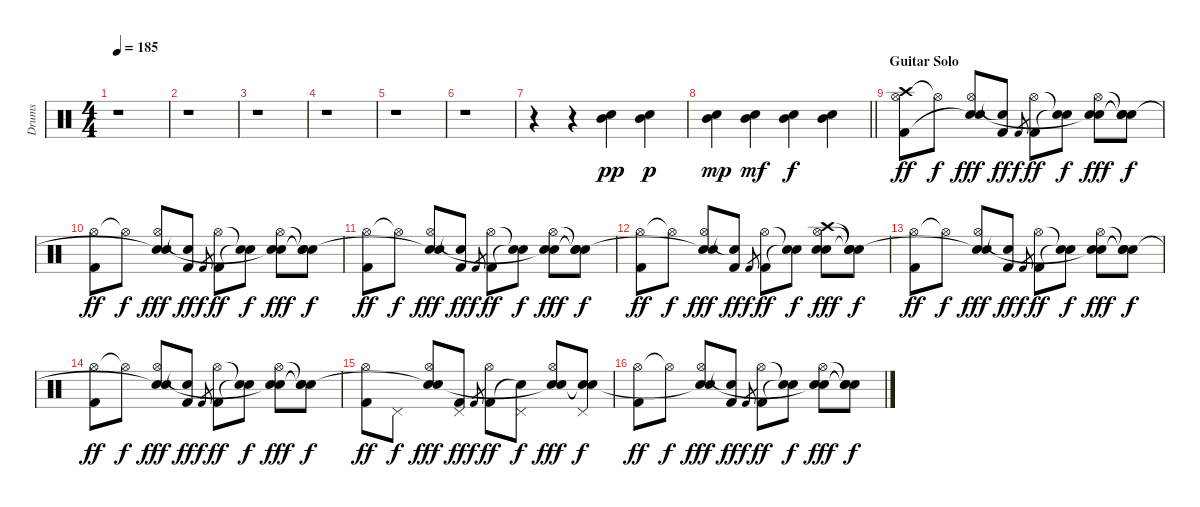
\track ("Drums" "Drums") {instrument percussion}
\staff {score}
\articulation defaults
\ts (4 4)
\tempo 185
\clef neutral
\ks c
r.1{dy ff} |
r.1 |
r.1 |
r.1 |
r.1 |
r.1 |
r.4 r.4 ("Electric Snare (hit)" "Mid Tom (hit)").4{dy pp} ("Electric Snare (hit)" "Mid Tom (hit)").4{dy p} |
\barLineRight lightlight
("Electric Snare (hit)" "Mid Tom (hit)").4{dy mp} ("Electric Snare (hit)" "Mid Tom (hit)").4{dy mf} ("Electric Snare (hit)" "Mid Tom (hit)").4{dy f} ("Electric Snare (hit)" "Mid Tom (hit)").4 |
\section ("" "Guitar Solo")
("Crash high (hit)" "Hi-Hat (open)" "Kick (hit) 2").8{dy ff} "Hi-Hat (open)"{t}.8{dy f} ("Hi-Hat (open)" "Electric Snare (hit)" "Snare (hit)"{t}).8{dy fff} ("Snare (hit)"{t} "Kick (hit) 2").8{dy ff} "Kick (hit) 2".8{gr dy f} ("Hi-Hat (open)" "Kick (hit) 2").8{dy ff} ("Snare (hit)"{t} "Snare (hit)"{t}).8{dy f} ("Hi-Hat (open)" "Electric Snare (hit)" "Snare (hit)"{t}).8{dy fff} ("Snare (hit)"{t} "Snare (hit)"{t} "Snare (hit)"{t}).8{dy f} |
("Hi-Hat (open)" "Kick (hit) 2").8{dy ff} "Hi-Hat (open)"{t}.8{dy f} ("Hi-Hat (open)" "Electric Snare (hit)" "Snare (hit)"{t}).8{dy fff} ("Snare (hit)"{t} "Kick (hit) 2").8{dy ff} "Kick (hit) 2".8{gr dy f} ("Hi-Hat (open)" "Kick (hit) 2").8{dy ff} ("Snare (hit)"{t} "Snare (hit)"{t}).8{dy f} ("Hi-Hat (open)" "Electric Snare (hit)" "Snare (hit)"{t}).8{dy fff} ("Snare (hit)"{t} "Snare (hit)"{t} "Snare (hit)"{t}).8{dy f} |
("Hi-Hat (open)" "Kick (hit) 2").8{dy ff} "Hi-Hat (open)"{t}.8{dy f} ("Hi-Hat (open)" "Electric Snare (hit)" "Snare (hit)"{t}).8{dy fff} ("Snare (hit)"{t} "Kick (hit) 2").8{dy ff} "Kick (hit) 2".8{gr dy f} ("Hi-Hat (open)" "Kick (hit) 2").8{dy ff} ("Snare (hit)"{t} "Snare (hit)"{t}).8{dy f} ("Hi-Hat (open)" "Electric Snare (hit)" "Snare (hit)"{t}).8{dy fff} ("Snare (hit)"{t} "Snare (hit)"{t} "Snare (hit)"{t}).8{dy f} |
("Hi-Hat (open)" "Kick (hit) 2").8{dy ff} "Hi-Hat (open)"{t}.8{dy f} ("Hi-Hat (open)" "Electric Snare (hit)" "Snare (hit)"{t}).8{dy fff} ("Snare (hit)"{t} "Kick (hit) 2").8{dy ff} "Kick (hit) 2".8{gr dy f} ("Hi-Hat (open)" "Kick (hit) 2").8{dy ff} ("Snare (hit)"{t} "Snare (hit)"{t}).8{dy f} ("Crash high (hit)" "Hi-Hat (open)" "Electric Snare (hit)" "Snare (hit)").8{dy fff} ("Snare (hit)"{t} "Snare (hit)"{t} "Snare (hit)"{t}).8{dy f} |
("Hi-Hat (open)" "Kick (hit) 2").8{dy ff} "Hi-Hat (open)"{t}.8{dy f} ("Hi-Hat (open)" "Electric Snare (hit)" "Snare (hit)"{t}).8{dy fff} ("Snare (hit)"{t} "Kick (hit) 2").8{dy ff} "Kick (hit) 2".8{gr dy f} ("Hi-Hat (open)" "Kick (hit) 2").8{dy ff} ("Snare (hit)"{t} "Snare (hit)"{t}).8{dy f} ("Hi-Hat (open)" "Electric Snare (hit)" "Snare (hit)"{t}).8{dy fff} ("Snare (hit)"{t} "Snare (hit)"{t} "Snare (hit)"{t}).8{dy f} |
("Hi-Hat (open)" "Kick (hit) 2").8{dy ff} "Hi-Hat (open)"{t}.8{dy f} ("Hi-Hat (open)" "Electric Snare (hit)" "Snare (hit)"{t}).8{dy fff} ("Snare (hit)"{t} "Kick (hit) 2").8{dy ff} "Kick (hit) 2".8{gr dy f} ("Hi-Hat (open)" "Kick (hit) 2").8{dy ff} ("Snare (hit)"{t} "Snare (hit)"{t}).8{dy f} ("Hi-Hat (open)" "Electric Snare (hit)" "Snare (hit)"{t}).8{dy fff} ("Snare (hit)"{t} "Snare (hit)"{t} "Snare (hit)"{t}).8{dy f} |
("Hi-Hat (open)" "Kick (hit) 2").8{dy ff} "Pedal Hi-Hat (hit)".8{dy f} ("Hi-Hat (open)" "Electric Snare (hit)" "Snare (hit)"{t}).8{dy fff} ("Pedal Hi-Hat (hit)" "Kick (hit) 2").8{dy ff} "Kick (hit) 2".8{gr dy f} ("Hi-Hat (open)" "Kick (hit) 2").8{dy ff} ("Pedal Hi-Hat (hit)" "Snare (hit)"{t}).8{dy f} ("Hi-Hat (open)" "Electric Snare (hit)" "Snare (hit)"{t}).8{dy fff} ("Pedal Hi-Hat (hit)" "Snare (hit)"{t} "Snare (hit)"{t}).8{dy f} |
("Hi-Hat (open)" "Kick (hit) 2").8{dy ff} "Hi-Hat (open)"{t}.8{dy f} ("Hi-Hat (open)" "Electric Snare (hit)" "Snare (hit)"{t}).8{dy fff} ("Snare (hit)"{t} "Kick (hit) 2").8{dy ff} "Kick (hit) 2".8{gr dy f} ("Hi-Hat (open)" "Kick (hit) 2").8{dy ff} ("Snare (hit)"{t} "Snare (hit)"{t}).8{dy f} ("Hi-Hat (open)" "Electric Snare (hit)" "Snare (hit)"{t}).8{dy fff} ("Snare (hit)"{t} "Snare (hit)"{t} "Snare (hit)"{t}).8{dy f}
